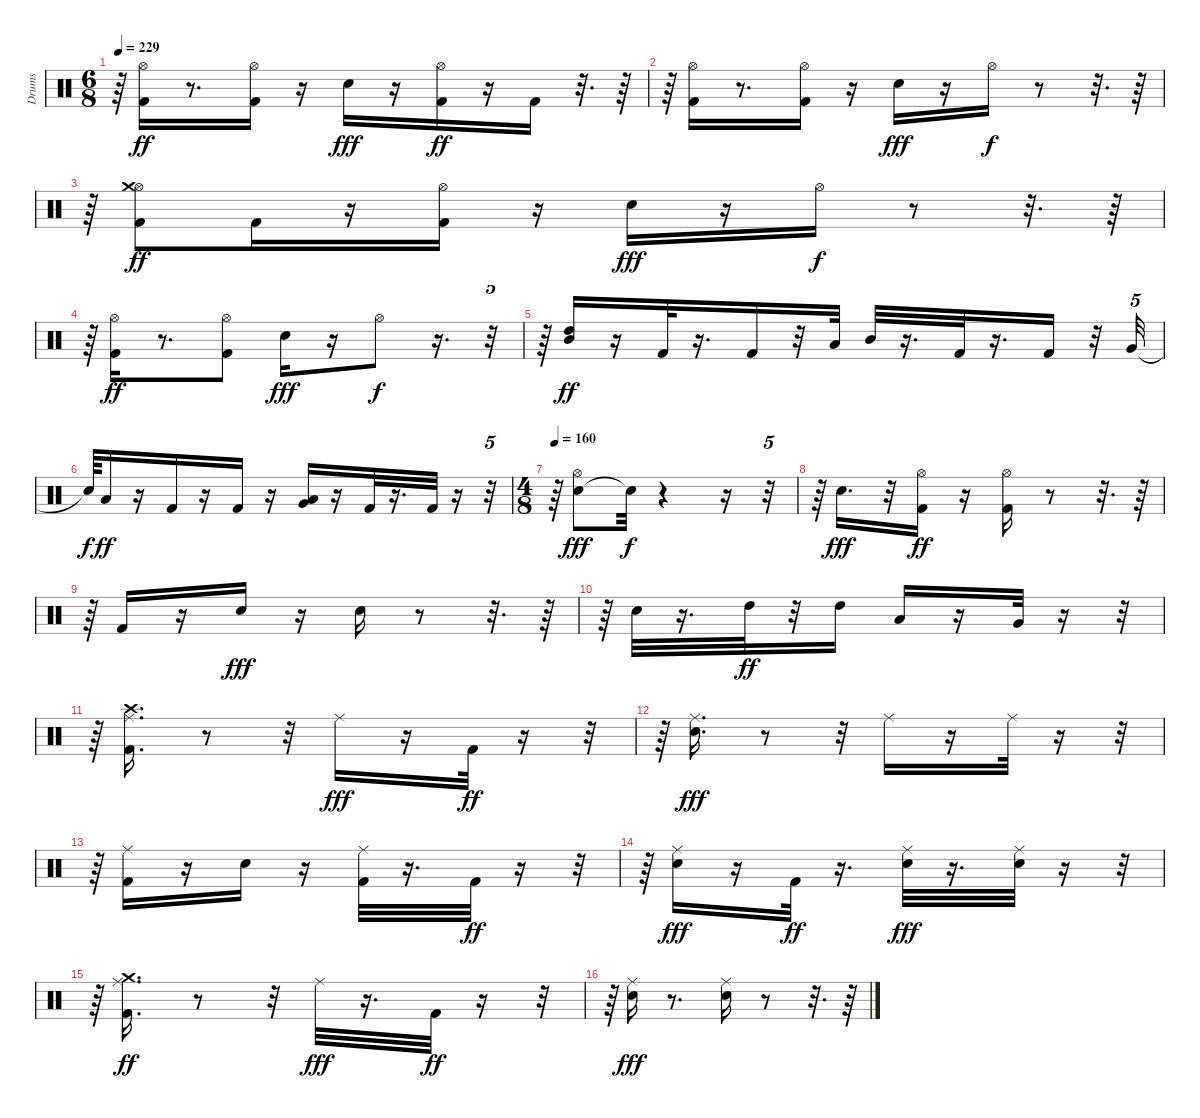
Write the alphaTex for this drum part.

\track ("Drums" "Drums") {instrument percussion}
\staff {score}
\articulation defaults
\ts (6 8)
\tempo 229
\clef neutral
\ks c
r.64{dy f} ("Kick (hit) 2" "Hi-Hat (open)").16{dy ff} r.8{d} ("Kick (hit) 2" "Hi-Hat (open)").16 r.16 "Snare (hit) 2".16{dy fff} r.16 ("Kick (hit) 2" "Hi-Hat (open)").16{dy ff} r.16 "Kick (hit) 2".16 r.32{d} r.64 |
r.64 ("Kick (hit) 2" "Hi-Hat (open)").16 r.8{d} ("Kick (hit) 2" "Hi-Hat (open)").16 r.16 "Snare (hit) 2".16{dy fff} r.16 "Hi-Hat (open)".16{dy f} r.8 r.32{d} r.64 |
r.64 ("Kick (hit) 2" "Hi-Hat (open)" "Crash medium (hit)").8{dy ff} "Kick (hit) 2".16 r.16 ("Kick (hit) 2" "Hi-Hat (open)").16 r.16 "Snare (hit) 2".16{dy fff} r.16 "Hi-Hat (open)".16{dy f} r.8 r.32{d} r.64 |
r.64 ("Kick (hit) 2" "Hi-Hat (open)").16{dy ff} r.8{d} ("Kick (hit) 2" "Hi-Hat (open)").8 "Snare (hit) 2".16{dy fff} r.16 "Hi-Hat (open)".8{dy f} r.16{d} r.32{tu (5 4)} |
r.64 ("Mid Tom (hit)" "High Tom (hit)").16{dy ff} r.16 "Kick (hit) 2".32 r.16{d} "Kick (hit) 2".16 r.32 "Low Tom (hit)".32 "Mid Tom (hit)".32 r.16{d} "Kick (hit) 2".32 r.16{d} "Kick (hit) 2".16 r.32 "Very Low Tom (hit)".32{tu (5 4)} |
"Snare (hit)"{t}.64{dy f} "Low Tom (hit)".16{dy ff} r.16 "Kick (hit) 2".16 r.16 "Kick (hit) 2".16 r.16 ("Low Floor Tom (hit)" "Very Low Tom (hit)").16 r.16 "Kick (hit) 2".32 r.16{d} "Kick (hit) 2".32 r.16 r.32{tu (5 4)} |
\ts (4 8)
\tempo 160
r.64 ("Snare (hit) 2" "Hi-Hat (open)").8{dy fff} "Snare (hit)"{t}.32{dy f} r.4 r.16 r.32{tu (5 4)} |
r.64 "Snare (hit) 2".16{d dy fff} r.32 ("Kick (hit) 2" "Hi-Hat (open)").16{dy ff} r.16 ("Kick (hit) 2" "Hi-Hat (open)").16 r.8 r.32{d} r.64 |
r.64 "Kick (hit) 2".16 r.16 "Snare (hit) 2".16{dy fff} r.16 "Snare (hit) 2".16 r.8 r.32{d} r.64 |
r.64 "Snare (hit) 2".32 r.16{d} "High Tom (hit)".32{dy ff} r.32 "High Tom (hit)".16 "Low Tom (hit)".16 r.16 "Very Low Tom (hit)".32 r.16 r.32{tu (5 4)} |
r.64 ("Kick (hit) 2" "Ride (middle)" "Crash high (hit)").16{d} r.8 r.32 "Ride (middle)".16{dy fff} r.16 "Kick (hit) 2".32{dy ff} r.16 r.32{tu (5 4)} |
r.64 ("Snare (hit) 2" "Ride (middle)").16{d dy fff} r.8 r.32 "Ride (middle)".16 r.16 "Ride (middle)".32 r.16 r.32{tu (5 4)} |
r.64 ("Kick (hit) 2" "Ride (middle)").16 r.16 "Snare (hit) 2".16 r.16 ("Kick (hit) 2" "Ride (middle)").32 r.16{d} "Kick (hit) 2".32{dy ff} r.16 r.32{tu (5 4)} |
r.64 ("Snare (hit) 2" "Ride (middle)").16{dy fff} r.16 "Kick (hit) 2".32{dy ff} r.16{d} ("Snare (hit) 2" "Ride (middle)").32{dy fff} r.16{d} ("Snare (hit) 2" "Ride (middle)").32 r.16 r.32{tu (5 4)} |
r.64 ("Kick (hit) 2" "Ride (middle)" "Crash medium (hit)").16{d dy ff} r.8 r.32 "Ride (middle)".32{dy fff} r.16{d} "Kick (hit) 2".32{dy ff} r.16 r.32{tu (5 4)} |
r.64 ("Snare (hit) 2" "Ride (middle)").16{dy fff} r.8{d} ("Snare (hit) 2" "Ride (middle)").16 r.8 r.32{d} r.64
